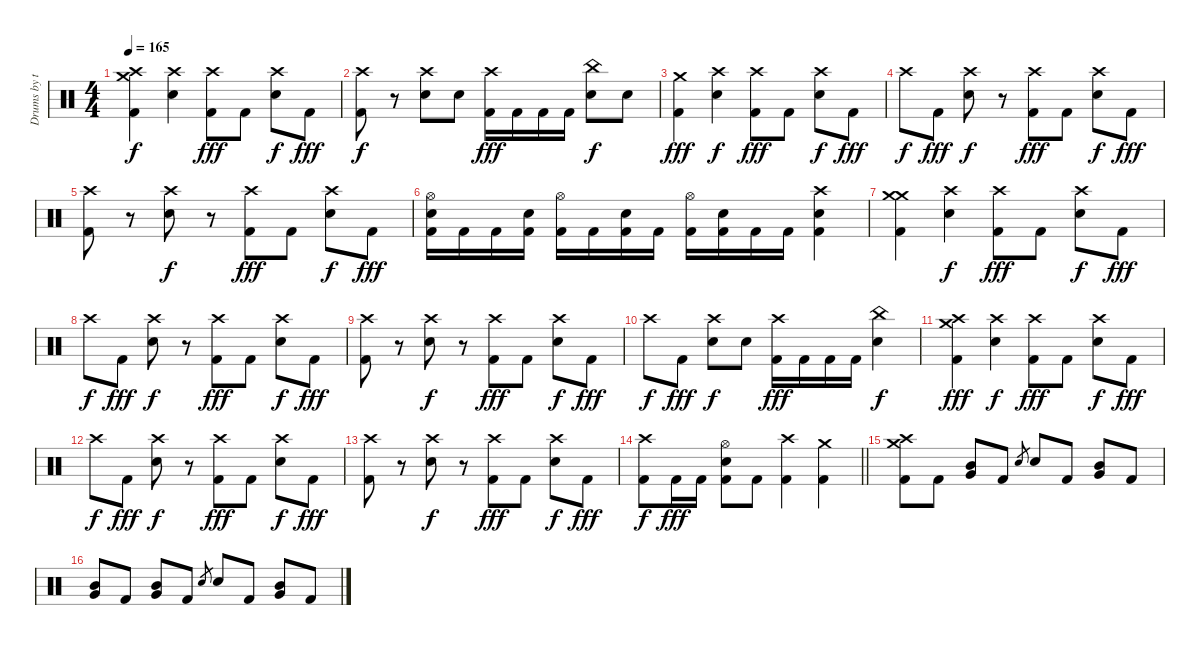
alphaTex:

\track ("Drums by terryn0" "Drums by t") {instrument percussion}
\staff {score}
\articulation defaults
\ts (4 4)
\tempo 165
\clef neutral
\ks c
("Crash medium (hit)" "Crash high (hit)" "Kick (hit) 2").4{dy f} ("Crash high (hit)" "Electric Snare (hit)").4 ("Crash high (hit)" "Kick (hit) 2").8{dy fff} "Kick (hit) 2".8 ("Crash high (hit)" "Electric Snare (hit)").8{dy f} "Kick (hit) 2".8{dy fff} |
("Crash high (hit)" "Kick (hit) 2").8{dy f} r.8 ("Crash high (hit)" "Electric Snare (hit)").8 "Electric Snare (hit)".8 ("Crash high (hit)" "Kick (hit) 2").16{dy fff} "Kick (hit) 2".16 "Kick (hit) 2".16 "Kick (hit) 2".16 ("China (hit)" "Electric Snare (hit)").8{dy f} "Electric Snare (hit)".8 |
("Crash medium (hit)" "Kick (hit) 2").4{dy fff} ("Crash high (hit)" "Electric Snare (hit)").4{dy f} ("Crash high (hit)" "Kick (hit) 2").8{dy fff} "Kick (hit) 2".8 ("Crash high (hit)" "Electric Snare (hit)").8{dy f} "Kick (hit) 2".8{dy fff} |
"Crash high (hit)".8{dy f} "Kick (hit) 2".8{dy fff} ("Crash high (hit)" "Electric Snare (hit)").8{dy f} r.8 ("Crash high (hit)" "Kick (hit) 2").8{dy fff} "Kick (hit) 2".8 ("Crash high (hit)" "Electric Snare (hit)").8{dy f} "Kick (hit) 2".8{dy fff} |
("Crash high (hit)" "Kick (hit) 2").8 r.8 ("Crash high (hit)" "Electric Snare (hit)").8{dy f} r.8 ("Crash high (hit)" "Kick (hit) 2").8{dy fff} "Kick (hit) 2".8 ("Crash high (hit)" "Electric Snare (hit)").8{dy f} "Kick (hit) 2".8{dy fff} |
("Hi-Hat (open)" "Electric Snare (hit)" "Kick (hit) 2").16 "Kick (hit) 2".16 "Kick (hit) 2".16 ("Electric Snare (hit)" "Kick (hit) 2").16 ("Hi-Hat (open)" "Kick (hit) 2").16 "Kick (hit) 2".16 ("Electric Snare (hit)" "Kick (hit) 2").16 "Kick (hit) 2".16 ("Hi-Hat (open)" "Kick (hit) 2").16 ("Electric Snare (hit)" "Kick (hit) 2").16 "Kick (hit) 2".16 "Kick (hit) 2".16 ("Crash high (hit)" "Electric Snare (hit)" "Kick (hit) 2").4 |
("Crash medium (hit)" "Crash medium (hit)" "Kick (hit) 2").4 ("Crash high (hit)" "Electric Snare (hit)").4{dy f} ("Crash high (hit)" "Kick (hit) 2").8{dy fff} "Kick (hit) 2".8 ("Crash high (hit)" "Electric Snare (hit)").8{dy f} "Kick (hit) 2".8{dy fff} |
"Crash high (hit)".8{dy f} "Kick (hit) 2".8{dy fff} ("Crash high (hit)" "Electric Snare (hit)").8{dy f} r.8 ("Crash high (hit)" "Kick (hit) 2").8{dy fff} "Kick (hit) 2".8 ("Crash high (hit)" "Electric Snare (hit)").8{dy f} "Kick (hit) 2".8{dy fff} |
("Crash high (hit)" "Kick (hit) 2").8 r.8 ("Crash high (hit)" "Electric Snare (hit)").8{dy f} r.8 ("Crash high (hit)" "Kick (hit) 2").8{dy fff} "Kick (hit) 2".8 ("Crash high (hit)" "Electric Snare (hit)").8{dy f} "Kick (hit) 2".8{dy fff} |
"Crash high (hit)".8{dy f} "Kick (hit) 2".8{dy fff} ("Crash high (hit)" "Electric Snare (hit)").8{dy f} "Electric Snare (hit)".8 ("Crash high (hit)" "Kick (hit) 2").16{dy fff} "Kick (hit) 2".16 "Kick (hit) 2".16 "Kick (hit) 2".16 ("China (hit)" "Electric Snare (hit)").4{dy f} |
("Crash medium (hit)" "Crash high (hit)" "Kick (hit) 2").4{dy fff} ("Crash high (hit)" "Electric Snare (hit)").4{dy f} ("Crash high (hit)" "Kick (hit) 2").8{dy fff} "Kick (hit) 2".8 ("Crash high (hit)" "Electric Snare (hit)").8{dy f} "Kick (hit) 2".8{dy fff} |
"Crash high (hit)".8{dy f} "Kick (hit) 2".8{dy fff} ("Crash high (hit)" "Electric Snare (hit)").8{dy f} r.8 ("Crash high (hit)" "Kick (hit) 2").8{dy fff} "Kick (hit) 2".8 ("Crash high (hit)" "Electric Snare (hit)").8{dy f} "Kick (hit) 2".8{dy fff} |
("Crash high (hit)" "Kick (hit) 2").8 r.8 ("Crash high (hit)" "Electric Snare (hit)").8{dy f} r.8 ("Crash high (hit)" "Kick (hit) 2").8{dy fff} "Kick (hit) 2".8 ("Crash high (hit)" "Electric Snare (hit)").8{dy f} "Kick (hit) 2".8{dy fff} |
\barLineRight lightlight
("Crash high (hit)" "Kick (hit) 2").8{dy f} "Kick (hit) 2".16{dy fff} "Kick (hit) 2".16 ("Hi-Hat (open)" "Electric Snare (hit)" "Kick (hit) 2").8 "Kick (hit) 2".8 ("Crash high (hit)" "Kick (hit) 2").4 ("Crash medium (hit)" "Kick (hit) 2").4 |
("Crash high (hit)" "Crash medium (hit)" "Kick (hit) 2").8 "Kick (hit) 2".8 ("Mid Tom (hit)" "Very Low Tom (hit)").8 "Kick (hit) 2".8 "Electric Snare (hit)".8{gr} "Electric Snare (hit)".8 "Kick (hit) 2".8 ("Mid Tom (hit)" "Very Low Tom (hit)").8 "Kick (hit) 2".8 |
("Mid Tom (hit)" "Very Low Tom (hit)").8 "Kick (hit) 2".8 ("Mid Tom (hit)" "Very Low Tom (hit)").8 "Kick (hit) 2".8 "Electric Snare (hit)".8{gr} "Electric Snare (hit)".8 "Kick (hit) 2".8 ("Mid Tom (hit)" "Very Low Tom (hit)").8 "Kick (hit) 2".8
